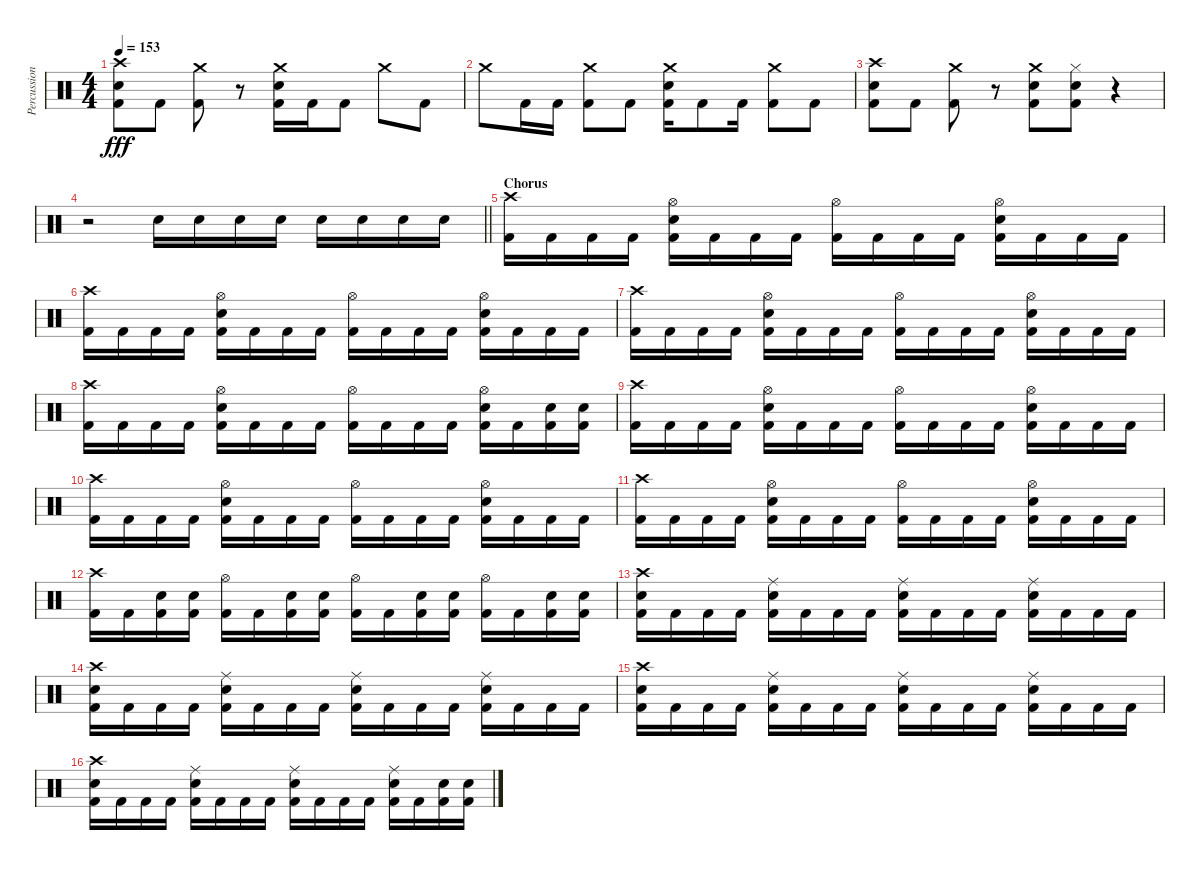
\track ("Percussion" "Percussion") {instrument percussion}
\staff {score}
\articulation defaults
\ts (4 4)
\tempo 153
\clef neutral
\ks c
("Crash high (hit)" "Snare (hit) 2" "Kick (hit) 2").8{dy fff} "Kick (hit) 2".8 ("Crash medium (hit)" "Kick (hit) 2").8 r.8 ("Snare (hit) 2" "Crash medium (hit)" "Kick (hit) 2").16 "Kick (hit) 2".16 "Kick (hit) 2".8 "Crash medium (hit)".8 "Kick (hit) 2".8 |
"Crash medium (hit)".8 "Kick (hit) 2".16 "Kick (hit) 2".16 ("Crash medium (hit)" "Kick (hit) 2").8 "Kick (hit) 2".8 ("Snare (hit) 2" "Crash medium (hit)" "Kick (hit) 2").16 "Kick (hit) 2".8 "Kick (hit) 2".16 ("Crash medium (hit)" "Kick (hit) 2").8 "Kick (hit) 2".8 |
("Crash high (hit)" "Snare (hit) 2" "Kick (hit) 2").8 "Kick (hit) 2".8 ("Crash medium (hit)" "Kick (hit) 2").8 r.8 ("Snare (hit) 2" "Crash medium (hit)" "Kick (hit) 2").8 ("Snare (hit) 2" "Hi-Hat (closed)" "Kick (hit) 2").8 r.4 |
\barLineRight lightlight
r.2 "Snare (hit) 2".16 "Snare (hit) 2".16 "Snare (hit) 2".16 "Snare (hit) 2".16 "Snare (hit) 2".16 "Snare (hit) 2".16 "Snare (hit) 2".16 "Snare (hit) 2".16 |
\section ("" "Chorus")
("Crash high (hit)" "Kick (hit) 2").16 "Kick (hit) 2".16 "Kick (hit) 2".16 "Kick (hit) 2".16 ("Hi-Hat (open)" "Snare (hit) 2" "Kick (hit) 2").16 "Kick (hit) 2".16 "Kick (hit) 2".16 "Kick (hit) 2".16 ("Hi-Hat (open)" "Kick (hit) 2").16 "Kick (hit) 2".16 "Kick (hit) 2".16 "Kick (hit) 2".16 ("Hi-Hat (open)" "Snare (hit) 2" "Kick (hit) 2").16 "Kick (hit) 2".16 "Kick (hit) 2".16 "Kick (hit) 2".16 |
("Crash high (hit)" "Kick (hit) 2").16 "Kick (hit) 2".16 "Kick (hit) 2".16 "Kick (hit) 2".16 ("Hi-Hat (open)" "Snare (hit) 2" "Kick (hit) 2").16 "Kick (hit) 2".16 "Kick (hit) 2".16 "Kick (hit) 2".16 ("Hi-Hat (open)" "Kick (hit) 2").16 "Kick (hit) 2".16 "Kick (hit) 2".16 "Kick (hit) 2".16 ("Hi-Hat (open)" "Snare (hit) 2" "Kick (hit) 2").16 "Kick (hit) 2".16 "Kick (hit) 2".16 "Kick (hit) 2".16 |
("Crash high (hit)" "Kick (hit) 2").16 "Kick (hit) 2".16 "Kick (hit) 2".16 "Kick (hit) 2".16 ("Hi-Hat (open)" "Snare (hit) 2" "Kick (hit) 2").16 "Kick (hit) 2".16 "Kick (hit) 2".16 "Kick (hit) 2".16 ("Hi-Hat (open)" "Kick (hit) 2").16 "Kick (hit) 2".16 "Kick (hit) 2".16 "Kick (hit) 2".16 ("Hi-Hat (open)" "Snare (hit) 2" "Kick (hit) 2").16 "Kick (hit) 2".16 "Kick (hit) 2".16 "Kick (hit) 2".16 |
("Crash high (hit)" "Kick (hit) 2").16 "Kick (hit) 2".16 "Kick (hit) 2".16 "Kick (hit) 2".16 ("Hi-Hat (open)" "Snare (hit) 2" "Kick (hit) 2").16 "Kick (hit) 2".16 "Kick (hit) 2".16 "Kick (hit) 2".16 ("Hi-Hat (open)" "Kick (hit) 2").16 "Kick (hit) 2".16 "Kick (hit) 2".16 "Kick (hit) 2".16 ("Hi-Hat (open)" "Snare (hit) 2" "Kick (hit) 2").16 "Kick (hit) 2".16 ("Snare (hit) 2" "Kick (hit) 2").16 ("Snare (hit) 2" "Kick (hit) 2").16 |
("Crash high (hit)" "Kick (hit) 2").16 "Kick (hit) 2".16 "Kick (hit) 2".16 "Kick (hit) 2".16 ("Hi-Hat (open)" "Snare (hit) 2" "Kick (hit) 2").16 "Kick (hit) 2".16 "Kick (hit) 2".16 "Kick (hit) 2".16 ("Hi-Hat (open)" "Kick (hit) 2").16 "Kick (hit) 2".16 "Kick (hit) 2".16 "Kick (hit) 2".16 ("Hi-Hat (open)" "Snare (hit) 2" "Kick (hit) 2").16 "Kick (hit) 2".16 "Kick (hit) 2".16 "Kick (hit) 2".16 |
("Crash high (hit)" "Kick (hit) 2").16 "Kick (hit) 2".16 "Kick (hit) 2".16 "Kick (hit) 2".16 ("Hi-Hat (open)" "Snare (hit) 2" "Kick (hit) 2").16 "Kick (hit) 2".16 "Kick (hit) 2".16 "Kick (hit) 2".16 ("Hi-Hat (open)" "Kick (hit) 2").16 "Kick (hit) 2".16 "Kick (hit) 2".16 "Kick (hit) 2".16 ("Hi-Hat (open)" "Snare (hit) 2" "Kick (hit) 2").16 "Kick (hit) 2".16 "Kick (hit) 2".16 "Kick (hit) 2".16 |
("Crash high (hit)" "Kick (hit) 2").16 "Kick (hit) 2".16 "Kick (hit) 2".16 "Kick (hit) 2".16 ("Hi-Hat (open)" "Snare (hit) 2" "Kick (hit) 2").16 "Kick (hit) 2".16 "Kick (hit) 2".16 "Kick (hit) 2".16 ("Hi-Hat (open)" "Kick (hit) 2").16 "Kick (hit) 2".16 "Kick (hit) 2".16 "Kick (hit) 2".16 ("Hi-Hat (open)" "Snare (hit) 2" "Kick (hit) 2").16 "Kick (hit) 2".16 "Kick (hit) 2".16 "Kick (hit) 2".16 |
("Crash high (hit)" "Kick (hit) 2").16 "Kick (hit) 2".16 ("Snare (hit) 2" "Kick (hit) 2").16 ("Snare (hit) 2" "Kick (hit) 2").16 ("Hi-Hat (open)" "Kick (hit) 2").16 "Kick (hit) 2".16 ("Snare (hit) 2" "Kick (hit) 2").16 ("Snare (hit) 2" "Kick (hit) 2").16 ("Hi-Hat (open)" "Kick (hit) 2").16 "Kick (hit) 2".16 ("Snare (hit) 2" "Kick (hit) 2").16 ("Snare (hit) 2" "Kick (hit) 2").16 ("Hi-Hat (open)" "Kick (hit) 2").16 "Kick (hit) 2".16 ("Snare (hit) 2" "Kick (hit) 2").16 ("Snare (hit) 2" "Kick (hit) 2").16 |
("Crash high (hit)" "Snare (hit) 2" "Kick (hit) 2").16 "Kick (hit) 2".16 "Kick (hit) 2".16 "Kick (hit) 2".16 ("Ride (middle)" "Snare (hit) 2" "Kick (hit) 2").16 "Kick (hit) 2".16 "Kick (hit) 2".16 "Kick (hit) 2".16 ("Ride (middle)" "Snare (hit) 2" "Kick (hit) 2").16 "Kick (hit) 2".16 "Kick (hit) 2".16 "Kick (hit) 2".16 ("Ride (middle)" "Snare (hit) 2" "Kick (hit) 2").16 "Kick (hit) 2".16 "Kick (hit) 2".16 "Kick (hit) 2".16 |
("Crash high (hit)" "Snare (hit) 2" "Kick (hit) 2").16 "Kick (hit) 2".16 "Kick (hit) 2".16 "Kick (hit) 2".16 ("Ride (middle)" "Snare (hit) 2" "Kick (hit) 2").16 "Kick (hit) 2".16 "Kick (hit) 2".16 "Kick (hit) 2".16 ("Ride (middle)" "Snare (hit) 2" "Kick (hit) 2").16 "Kick (hit) 2".16 "Kick (hit) 2".16 "Kick (hit) 2".16 ("Ride (middle)" "Snare (hit) 2" "Kick (hit) 2").16 "Kick (hit) 2".16 "Kick (hit) 2".16 "Kick (hit) 2".16 |
("Crash high (hit)" "Snare (hit) 2" "Kick (hit) 2").16 "Kick (hit) 2".16 "Kick (hit) 2".16 "Kick (hit) 2".16 ("Ride (middle)" "Snare (hit) 2" "Kick (hit) 2").16 "Kick (hit) 2".16 "Kick (hit) 2".16 "Kick (hit) 2".16 ("Ride (middle)" "Snare (hit) 2" "Kick (hit) 2").16 "Kick (hit) 2".16 "Kick (hit) 2".16 "Kick (hit) 2".16 ("Ride (middle)" "Snare (hit) 2" "Kick (hit) 2").16 "Kick (hit) 2".16 "Kick (hit) 2".16 "Kick (hit) 2".16 |
("Crash high (hit)" "Snare (hit) 2" "Kick (hit) 2").16 "Kick (hit) 2".16 "Kick (hit) 2".16 "Kick (hit) 2".16 ("Ride (middle)" "Snare (hit) 2" "Kick (hit) 2").16 "Kick (hit) 2".16 "Kick (hit) 2".16 "Kick (hit) 2".16 ("Ride (middle)" "Snare (hit) 2" "Kick (hit) 2").16 "Kick (hit) 2".16 "Kick (hit) 2".16 "Kick (hit) 2".16 ("Ride (middle)" "Snare (hit) 2" "Kick (hit) 2").16 "Kick (hit) 2".16 ("Snare (hit) 2" "Kick (hit) 2").16 ("Snare (hit) 2" "Kick (hit) 2").16
